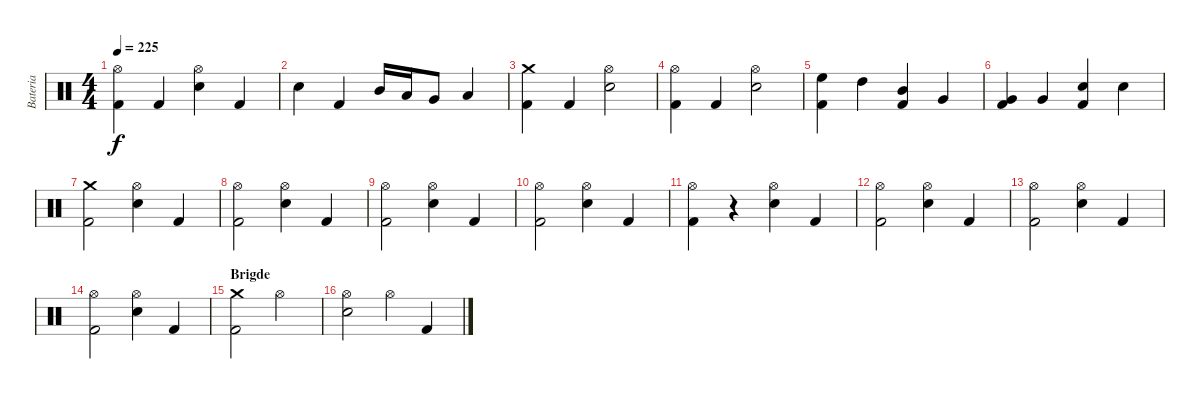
\track ("Bateria" "Bateria") {instrument percussion}
\staff {score}
\articulation defaults
\ts (4 4)
\tempo 225
\clef neutral
\ks c
("Kick (hit) 2" "Hi-Hat (open)").4{dy f} "Kick (hit) 2".4 ("Snare (hit) 2" "Hi-Hat (open)").4 "Kick (hit) 2".4 |
"Snare (hit) 2".4 "Kick (hit) 2".4 "Mid Tom (hit)".16 "Low Tom (hit)".16 "Very Low Tom (hit)".8 "Low Floor Tom (hit)".4 |
("Kick (hit) 2" "Crash medium (hit)").4 "Kick (hit) 2".4 ("Snare (hit) 2" "Hi-Hat (open)").2 |
("Kick (hit) 2" "Hi-Hat (open)").4 "Kick (hit) 2".4 ("Snare (hit) 2" "Hi-Hat (open)").2 |
("Kick (hit) 2" "High Floor Tom (hit)").4 "High Tom (hit)".4 ("Mid Tom (hit)" "Kick (hit) 2").4 "Very Low Tom (hit)".4 |
("Kick (hit) 2" "Very Low Tom (hit)").4 "Very Low Tom (hit)".4 ("Kick (hit) 2" "Snare (hit) 2").4 "Snare (hit) 2".4 |
("Kick (hit) 2" "Crash medium (hit)").2 ("Snare (hit) 2" "Hi-Hat (open)").4 "Kick (hit) 2".4 |
("Kick (hit) 2" "Hi-Hat (open)").2 ("Snare (hit) 2" "Hi-Hat (open)").4 "Kick (hit) 2".4 |
("Kick (hit) 2" "Hi-Hat (open)").2 ("Snare (hit) 2" "Hi-Hat (open)").4 "Kick (hit) 2".4 |
("Kick (hit) 2" "Hi-Hat (open)").2 ("Snare (hit) 2" "Hi-Hat (open)").4 "Kick (hit) 2".4 |
("Kick (hit) 2" "Hi-Hat (open)").4 r.4 ("Snare (hit) 2" "Hi-Hat (open)").4 "Kick (hit) 2".4 |
("Kick (hit) 2" "Hi-Hat (open)").2 ("Snare (hit) 2" "Hi-Hat (open)").4 "Kick (hit) 2".4 |
("Kick (hit) 2" "Hi-Hat (open)").2 ("Snare (hit) 2" "Hi-Hat (open)").4 "Kick (hit) 2".4 |
("Kick (hit) 2" "Hi-Hat (open)").2 ("Snare (hit) 2" "Hi-Hat (open)").4 "Kick (hit) 2".4 |
\section ("" "Brigde")
("Crash medium (hit)" "Kick (hit) 2").2 "Hi-Hat (open)".2 |
("Hi-Hat (open)" "Snare (hit) 2").2 "Hi-Hat (open)".4 "Kick (hit) 2".4
